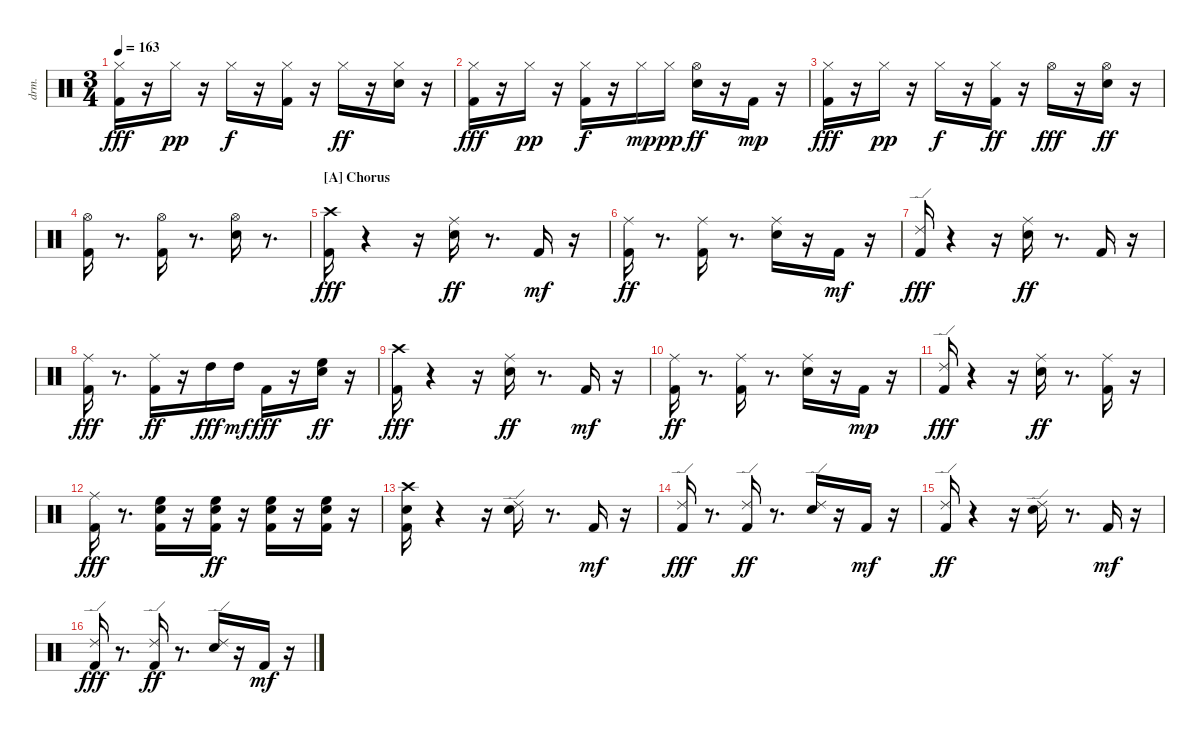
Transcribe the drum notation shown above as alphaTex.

\bracketExtendMode nobrackets
\track ("EZdrummer 3" "drm.") {instrument percussion}
\staff {score}
\articulation defaults
\ts (3 4)
\tempo 163
\clef neutral
\ks aminor
("Kick (hit) 2" "Hi-Hat (closed)"{acc #}).16{dy fff beam Down} r.16{beam Down} "Hi-Hat (closed)"{acc #}.16{dy pp beam Down} r.16{beam Down} "Hi-Hat (closed)"{acc #}.16{dy f beam Down} r.16{beam Down} ("Kick (hit) 2" "Hi-Hat (closed)"{acc #}).16{beam Down} r.16{beam Down} "Hi-Hat (closed)"{acc #}.16{dy ff beam Down} r.16{beam Down} ("Snare (hit) 2" "Hi-Hat (closed)"{acc #}).16{beam Down} r.16{beam Down} |
("Kick (hit) 2" "Hi-Hat (closed)"{acc #}).16{dy fff beam Down} r.16{beam Down} "Hi-Hat (closed)"{acc #}.16{dy pp beam Down} r.16{beam Down} ("Kick (hit) 2" "Hi-Hat (closed)"{acc #}).16{dy f beam Down} r.16{beam Down} "Hi-Hat (closed)"{acc #}.16{dy mp beam Down} "Hi-Hat (closed)"{acc #}.16{dy pp beam Down} ("Snare (hit) 2" "Hi-Hat (open)"{acc #}).16{dy ff beam Down} r.16{beam Down} "Kick (hit) 2".16{dy mp beam Down} r.16{beam Down} |
("Kick (hit) 2" "Hi-Hat (closed)"{acc #}).16{dy fff beam Down} r.16{beam Down} "Hi-Hat (closed)"{acc #}.16{dy pp beam Down} r.16{beam Down} "Hi-Hat (closed)"{acc #}.16{dy f beam Down} r.16{beam Down} ("Kick (hit) 2" "Hi-Hat (closed)"{acc #}).16{dy ff beam Down} r.16{beam Down} "Hi-Hat (open)"{acc #}.16{dy fff beam Down} r.16{beam Down} ("Snare (hit) 2" "Hi-Hat (open)"{acc #}).16{dy ff beam Down} r.16{beam Down} |
("Kick (hit) 2" "Hi-Hat (open)"{acc #}).16{beam Down} r.8{d beam Down} ("Kick (hit) 2" "Hi-Hat (open)"{acc #}).16{beam Down} r.8{d beam Down} ("Snare (hit) 2" "Hi-Hat (open)"{acc #}).16{beam Down} r.8{d beam Down} |
\section ("A" "Chorus")
("Kick (hit) 2" "Crash high (hit)"{acc #}).16{dy fff beam Down} r.4{beam Down} r.16{beam Down} ("Snare (hit) 2" "Ride (middle)"{acc #}).16{dy ff beam Down} r.8{d beam Down} "Kick (hit) 2".16{dy mf beam Up} r.16{beam Down} |
("Kick (hit) 2" "Ride (middle)"{acc #}).16{dy ff beam Down} r.8{d beam Down} ("Kick (hit) 2" "Ride (middle)"{acc #}).16{beam Down} r.8{d beam Down} ("Snare (hit) 2" "Ride (middle)"{acc #}).16{beam Down} r.16{beam Down} "Kick (hit) 2".16{dy mf beam Down} r.16{beam Down} |
("Kick (hit) 2" "Ride (edge) 2").16{dy fff beam Up} r.4{beam Down} r.16{beam Down} ("Snare (hit) 2" "Ride (middle)"{acc #}).16{dy ff beam Down} r.8{d beam Down} "Kick (hit) 2".16{beam Up} r.16{beam Down} |
("Kick (hit) 2" "Ride (middle)"{acc #}).16{dy fff beam Down} r.8{d beam Down} ("Kick (hit) 2" "Ride (middle)"{acc #}).16{dy ff beam Down} r.16{beam Down} "High Tom (hit)".16{dy fff beam Down} "High Tom (hit)".16{dy mf beam Down} "Kick (hit) 2".16{dy fff beam Down} r.16{beam Down} ("Snare (hit) 2" "High Floor Tom (hit)").16{dy ff beam Down} r.16{beam Down} |
("Kick (hit) 2" "Crash high (hit)"{acc #}).16{dy fff beam Down} r.4{beam Down} r.16{beam Down} ("Snare (hit) 2" "Ride (middle)"{acc #}).16{dy ff beam Down} r.8{d beam Down} "Kick (hit) 2".16{dy mf beam Up} r.16{beam Down} |
("Kick (hit) 2" "Ride (middle)"{acc #}).16{dy ff beam Down} r.8{d beam Down} ("Kick (hit) 2" "Ride (middle)"{acc #}).16{beam Down} r.8{d beam Down} ("Snare (hit) 2" "Ride (middle)"{acc #}).16{beam Down} r.16{beam Down} "Kick (hit) 2".16{dy mp beam Down} r.16{beam Down} |
("Kick (hit) 2" "Ride (edge) 2").16{dy fff beam Up} r.4{beam Down} r.16{beam Down} ("Snare (hit) 2" "Ride (middle)"{acc #}).16{dy ff beam Down} r.8{d beam Down} ("Kick (hit) 2" "Ride (middle)"{acc #}).16{beam Down} r.16{beam Down} |
("Kick (hit) 2" "Ride (middle)"{acc #}).16{dy fff beam Down} r.8{d beam Down} ("Kick (hit) 2" "Snare (hit) 2" "High Floor Tom (hit)").16{beam Down} r.16{beam Down} ("Kick (hit) 2" "Snare (hit) 2" "High Floor Tom (hit)").16{dy ff beam Down} r.16{beam Down} ("Kick (hit) 2" "Snare (hit) 2" "High Floor Tom (hit)").16{beam Down} r.16{beam Down} ("Kick (hit) 2" "Snare (hit) 2" "High Floor Tom (hit)").16{beam Down} r.16{beam Down} |
("Kick (hit) 2" "Snare (hit) 2" "Crash high (hit)"{acc #}).16{beam Down} r.4{beam Down} r.16{beam Down} ("Snare (hit) 2" "Ride (edge) 2").16{beam Down} r.8{d beam Down} "Kick (hit) 2".16{dy mf beam Up} r.16{beam Down} |
("Kick (hit) 2" "Ride (edge) 2").16{dy fff beam Up} r.8{d beam Down} ("Kick (hit) 2" "Ride (edge) 2").16{dy ff beam Up} r.8{d beam Down} ("Snare (hit) 2" "Ride (edge) 2").16{beam Up} r.16{beam Up} "Kick (hit) 2".16{dy mf beam Up} r.16{beam Down} |
("Kick (hit) 2" "Ride (edge) 2").16{dy ff beam Up} r.4{beam Down} r.16{beam Down} ("Snare (hit) 2" "Ride (edge) 2").16{beam Down} r.8{d beam Down} "Kick (hit) 2".16{dy mf beam Up} r.16{beam Down} |
("Kick (hit) 2" "Ride (edge) 2").16{dy fff beam Up} r.8{d beam Down} ("Kick (hit) 2" "Ride (edge) 2").16{dy ff beam Up} r.8{d beam Down} ("Snare (hit) 2" "Ride (edge) 2").16{beam Up} r.16{beam Up} "Kick (hit) 2".16{dy mf beam Up} r.16{beam Down}
